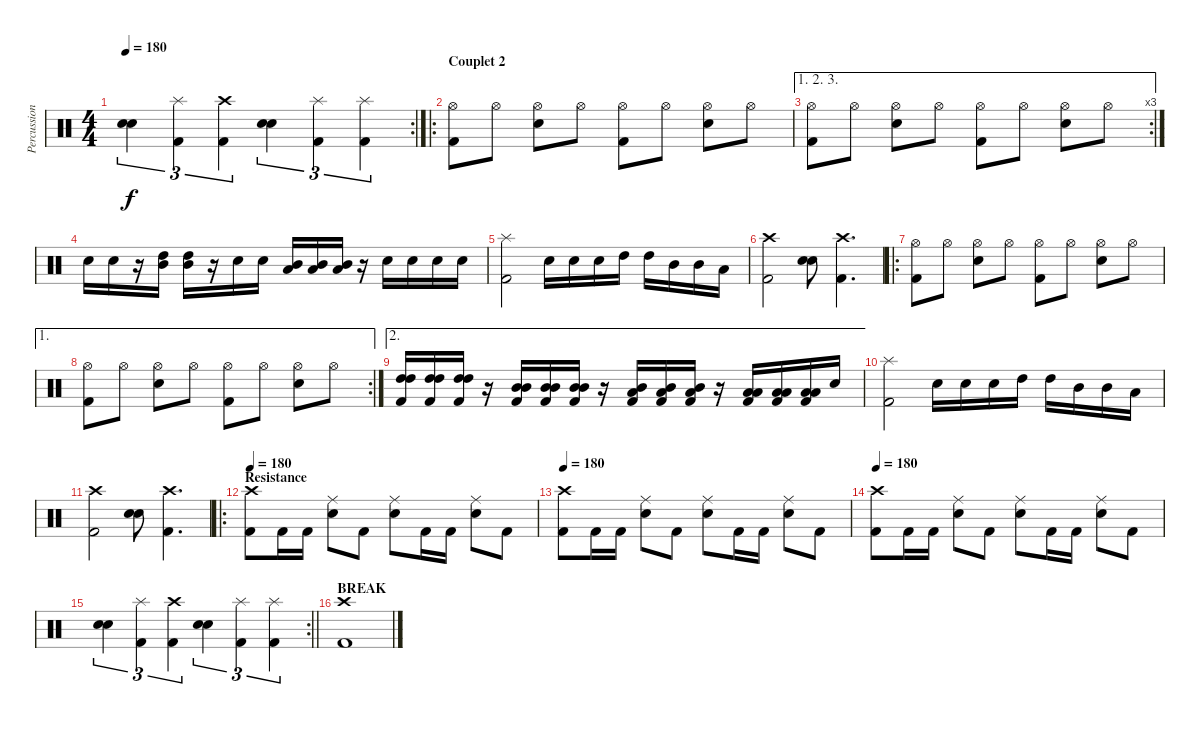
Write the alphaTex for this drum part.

\track ("Percussions" "Percussion") {instrument percussion}
\staff {score}
\articulation defaults
\rc 2
\ts (4 4)
\tempo 180
\clef neutral
\ks c
("Snare (hit) 2" "Snare (hit) 2").4{tu (3 2) bd 240 dy f} ("Splash (hit)" "Kick (hit) 2").4{tu (3 2)} ("Crash high (hit)" "Kick (hit) 2").4{tu (3 2)} ("Snare (hit) 2" "Snare (hit) 2").4{tu (3 2) bd 240} ("Splash (hit)" "Kick (hit) 2").4{tu (3 2)} ("Splash (hit)" "Kick (hit) 2").4{tu (3 2)} |
\ro
\section ("" "Couplet 2")
("Hi-Hat (open)" "Kick (hit) 2").8{volume 13} "Hi-Hat (open)".8{volume 10} ("Hi-Hat (open)" "Electric Snare (hit)").8{volume 13} "Hi-Hat (open)".8{volume 10} ("Hi-Hat (open)" "Kick (hit) 2").8{volume 13} "Hi-Hat (open)".8{volume 12} ("Hi-Hat (open)" "Electric Snare (hit)").8{volume 13} "Hi-Hat (open)".8{volume 10} |
\ae (1 2 3)
\rc 3
("Hi-Hat (open)" "Kick (hit) 2").8{volume 13} "Hi-Hat (open)".8{volume 10} ("Hi-Hat (open)" "Electric Snare (hit)").8{volume 13} "Hi-Hat (open)".8{volume 10} ("Hi-Hat (open)" "Kick (hit) 2").8{volume 13} "Hi-Hat (open)".8{volume 12} ("Hi-Hat (open)" "Electric Snare (hit)").8{volume 13} "Hi-Hat (open)".8{volume 10} |
"Electric Snare (hit)".16 "Electric Snare (hit)".16 r.16 ("Mid Tom (hit)" "High Tom (hit)").16 ("Mid Tom (hit)" "High Tom (hit)").16 r.16 "Electric Snare (hit)".16 "Electric Snare (hit)".16 ("Mid Tom (hit)" "Low Tom (hit)").16 ("Mid Tom (hit)" "Low Tom (hit)").16 ("Mid Tom (hit)" "Low Tom (hit)").16 r.16 "Electric Snare (hit)".16 "Electric Snare (hit)".16 "Electric Snare (hit)".16 "Electric Snare (hit)".16 |
("Splash (hit)" "Kick (hit) 2").2 "Electric Snare (hit)".16 "Electric Snare (hit)".16 "Electric Snare (hit)".16 "High Tom (hit)".16 "High Tom (hit)".16 "Mid Tom (hit)".16 "Mid Tom (hit)".16 "Low Tom (hit)".16 |
("Crash high (hit)" "Kick (hit) 2").2 ("Electric Snare (hit)" "Electric Snare (hit)").8{bd 240} ("Crash high (hit)" "Kick (hit) 2").4{d} |
\ro
("Hi-Hat (open)" "Kick (hit) 2").8{volume 13} "Hi-Hat (open)".8{volume 10} ("Hi-Hat (open)" "Electric Snare (hit)").8{volume 13} "Hi-Hat (open)".8{volume 10} ("Hi-Hat (open)" "Kick (hit) 2").8{volume 13} "Hi-Hat (open)".8{volume 12} ("Hi-Hat (open)" "Electric Snare (hit)").8{volume 13} "Hi-Hat (open)".8{volume 10} |
\ae 1
\rc 2
("Hi-Hat (open)" "Kick (hit) 2").8{volume 13} "Hi-Hat (open)".8{volume 10} ("Hi-Hat (open)" "Electric Snare (hit)").8{volume 13} "Hi-Hat (open)".8{volume 10} ("Hi-Hat (open)" "Kick (hit) 2").8{volume 13} "Hi-Hat (open)".8{volume 12} ("Hi-Hat (open)" "Electric Snare (hit)").8{volume 13} "Hi-Hat (open)".8{volume 10} |
\ae 2
("High Tom (hit)" "High Tom (hit)" "Kick (hit) 2").16 ("High Tom (hit)" "High Tom (hit)" "Kick (hit) 2").16 ("High Tom (hit)" "High Tom (hit)" "Kick (hit) 2").16 r.16 ("Mid Tom (hit)" "Mid Tom (hit)" "Kick (hit) 2").16 ("Mid Tom (hit)" "Mid Tom (hit)" "Kick (hit) 2").16 ("Mid Tom (hit)" "Mid Tom (hit)" "Kick (hit) 2").16 r.16 ("Mid Tom (hit)" "Low Tom (hit)" "Kick (hit) 2").16 ("Mid Tom (hit)" "Low Tom (hit)" "Kick (hit) 2").16 ("Mid Tom (hit)" "Low Tom (hit)" "Kick (hit) 2").16 r.16 ("Low Tom (hit)" "Low Tom (hit)" "Kick (hit) 2").16 ("Low Tom (hit)" "Low Tom (hit)" "Kick (hit) 2").16 ("Low Tom (hit)" "Low Tom (hit)" "Kick (hit) 2").16 "Snare (hit)"{x}.16 |
("Splash (hit)" "Kick (hit) 2").2 "Electric Snare (hit)".16 "Electric Snare (hit)".16 "Electric Snare (hit)".16 "High Tom (hit)".16 "High Tom (hit)".16 "Mid Tom (hit)".16 "Mid Tom (hit)".16 "Low Tom (hit)".16 |
("Crash high (hit)" "Kick (hit) 2").2 ("Electric Snare (hit)" "Electric Snare (hit)").8{bd 240} ("Crash high (hit)" "Kick (hit) 2").4{d} |
\ro
\section ("" "Resistance")
\tempo 180
("Crash high (hit)" "Kick (hit) 2").8 "Kick (hit) 2".16 "Kick (hit) 2".16 ("Ride (middle)" "Electric Snare (hit)").8 "Kick (hit) 2".8 ("Ride (middle)" "Electric Snare (hit)").8 "Kick (hit) 2".16 "Kick (hit) 2".16 ("Ride (middle)" "Electric Snare (hit)").8 "Kick (hit) 2".8 |
\tempo 180
("Crash high (hit)" "Kick (hit) 2").8 "Kick (hit) 2".16 "Kick (hit) 2".16 ("Ride (middle)" "Electric Snare (hit)").8 "Kick (hit) 2".8 ("Ride (middle)" "Electric Snare (hit)").8 "Kick (hit) 2".16 "Kick (hit) 2".16 ("Ride (middle)" "Electric Snare (hit)").8 "Kick (hit) 2".8 |
\tempo 180
("Crash high (hit)" "Kick (hit) 2").8 "Kick (hit) 2".16 "Kick (hit) 2".16 ("Ride (middle)" "Electric Snare (hit)").8 "Kick (hit) 2".8 ("Ride (middle)" "Electric Snare (hit)").8 "Kick (hit) 2".16 "Kick (hit) 2".16 ("Ride (middle)" "Electric Snare (hit)").8 "Kick (hit) 2".8 |
\rc 2
\barLineRight lightlight
("Snare (hit) 2" "Snare (hit) 2").4{tu (3 2) bd 240} ("Splash (hit)" "Kick (hit) 2").4{tu (3 2)} ("Crash high (hit)" "Kick (hit) 2").4{tu (3 2)} ("Snare (hit) 2" "Snare (hit) 2").4{tu (3 2) bd 240} ("Splash (hit)" "Kick (hit) 2").4{tu (3 2)} ("Splash (hit)" "Kick (hit) 2").4{tu (3 2)} |
\section ("" "BREAK")
("Crash high (hit)" "Kick (hit) 2").1
